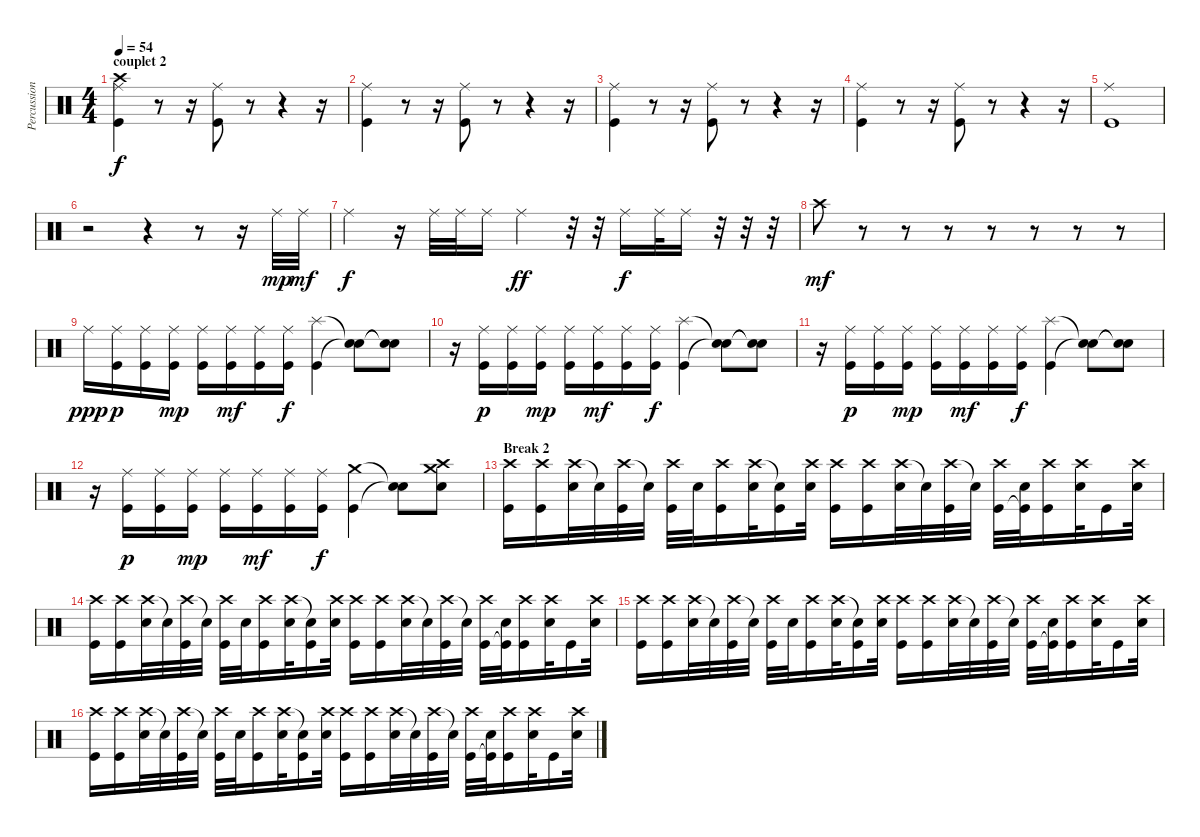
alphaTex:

\track ("Percussions" "Percussion") {instrument percussion}
\staff {score}
\articulation defaults
\ts (4 4)
\section ("" "couplet 2")
\tempo 54
\clef neutral
\ks c
("Ride (middle)" "Crash high (hit)" "Kick (hit)").4{dy f} r.8 r.16 ("Ride (middle)" "Kick (hit)").8 r.8 r.4 r.16 |
("Ride (middle)" "Kick (hit)").4 r.8 r.16 ("Ride (middle)" "Kick (hit)").8 r.8 r.4 r.16 |
("Ride (middle)" "Kick (hit)").4 r.8 r.16 ("Ride (middle)" "Kick (hit)").8 r.8 r.4 r.16 |
("Ride (middle)" "Kick (hit)").4 r.8 r.16 ("Ride (middle)" "Kick (hit)").8 r.8 r.4 r.16 |
("Ride (middle)" "Kick (hit)").1 |
r.2 r.4 r.8 r.16 "Ride (middle)".32{dy mp} "Ride (middle)".32{dy mf} |
"Ride (middle)".4{dy f} r.16 "Ride (middle)".32 "Ride (middle)".32 "Ride (middle)".16 "Ride (middle)".4{dy ff} r.32 r.32 "Ride (middle)".16{dy f} "Ride (middle)".32 "Ride (middle)".16 r.32 r.32 r.32 |
"Crash high (hit)".8{dy mf} r.8 r.8 r.8 r.8 r.8 r.8 r.8 |
"Ride (middle)".16{dy ppp} ("Ride (middle)" "Kick (hit)").16{dy p} ("Ride (middle)" "Kick (hit)").16 ("Ride (middle)" "Kick (hit)").16{dy mp} ("Ride (middle)" "Kick (hit)").16 ("Ride (middle)" "Kick (hit)").16{dy mf} ("Ride (middle)" "Kick (hit)").16 ("Ride (middle)" "Kick (hit)").16{dy f} ("Splash (hit)" "Kick (hit)").4 ("Snare (hit)"{t} "Snare (hit)"{t}).8 ("Snare (hit)"{t} "Snare (hit)"{t}).8 |
r.16 ("Ride (middle)" "Kick (hit)").16{dy p} ("Ride (middle)" "Kick (hit)").16 ("Ride (middle)" "Kick (hit)").16{dy mp} ("Ride (middle)" "Kick (hit)").16 ("Ride (middle)" "Kick (hit)").16{dy mf} ("Ride (middle)" "Kick (hit)").16 ("Ride (middle)" "Kick (hit)").16{dy f} ("Splash (hit)" "Kick (hit)").4 ("Snare (hit)"{t} "Snare (hit)"{t}).8 ("Snare (hit)"{t} "Snare (hit)"{t}).8 |
r.16 ("Ride (middle)" "Kick (hit)").16{dy p} ("Ride (middle)" "Kick (hit)").16 ("Ride (middle)" "Kick (hit)").16{dy mp} ("Ride (middle)" "Kick (hit)").16 ("Ride (middle)" "Kick (hit)").16{dy mf} ("Ride (middle)" "Kick (hit)").16 ("Ride (middle)" "Kick (hit)").16{dy f} ("Splash (hit)" "Kick (hit)").4 ("Snare (hit)"{t} "Snare (hit)"{t}).8 ("Snare (hit)"{t} "Snare (hit)"{t}).8 |
r.16 ("Ride (middle)" "Kick (hit)").16{dy p} ("Ride (middle)" "Kick (hit)").16 ("Ride (middle)" "Kick (hit)").16{dy mp} ("Ride (middle)" "Kick (hit)").16 ("Ride (middle)" "Kick (hit)").16{dy mf} ("Ride (middle)" "Kick (hit)").16 ("Ride (middle)" "Kick (hit)").16{dy f} ("Crash medium (hit)" "Kick (hit)").4 ("Snare (hit)"{t} "Snare (hit)"{t}).8 ("Crash high (hit)" "Crash medium (hit)" "Snare (hit)").8 |
\section ("" "Break 2")
("Crash high (hit)" "Kick (hit)").16 ("Crash high (hit)" "Kick (hit)").16 ("Crash high (hit)" "Electric Snare (hit)").32 "Snare (hit)"{t}.32 ("Crash high (hit)" "Kick (hit)").32 "Snare (hit)"{t}.32 ("Crash high (hit)" "Kick (hit)").32 "Electric Snare (hit)".32 ("Crash high (hit)" "Kick (hit)").16 ("Crash high (hit)" "Electric Snare (hit)").32 ("Snare (hit)"{t} "Kick (hit)").16 ("Crash high (hit)" "Electric Snare (hit)").32 ("Crash high (hit)" "Kick (hit)").16 ("Crash high (hit)" "Kick (hit)").16 ("Crash high (hit)" "Electric Snare (hit)").32 "Snare (hit)"{t}.32 ("Crash high (hit)" "Kick (hit)").32 "Snare (hit)"{t}.32 ("Crash high (hit)" "Kick (hit)").32 ("Electric Snare (hit)" "Kick (hit)"{t}).32 ("Crash high (hit)" "Kick (hit)").16 ("Crash high (hit)" "Electric Snare (hit)").32 "Kick (hit)".16 ("Crash high (hit)" "Electric Snare (hit)").32 |
("Crash high (hit)" "Kick (hit)").16 ("Crash high (hit)" "Kick (hit)").16 ("Crash high (hit)" "Electric Snare (hit)").32 "Snare (hit)"{t}.32 ("Crash high (hit)" "Kick (hit)").32 "Snare (hit)"{t}.32 ("Crash high (hit)" "Kick (hit)").32 "Electric Snare (hit)".32 ("Crash high (hit)" "Kick (hit)").16 ("Crash high (hit)" "Electric Snare (hit)").32 ("Snare (hit)"{t} "Kick (hit)").16 ("Crash high (hit)" "Electric Snare (hit)").32 ("Crash high (hit)" "Kick (hit)").16 ("Crash high (hit)" "Kick (hit)").16 ("Crash high (hit)" "Electric Snare (hit)").32 "Snare (hit)"{t}.32 ("Crash high (hit)" "Kick (hit)").32 "Snare (hit)"{t}.32 ("Crash high (hit)" "Kick (hit)").32 ("Electric Snare (hit)" "Kick (hit)"{t}).32 ("Crash high (hit)" "Kick (hit)").16 ("Crash high (hit)" "Electric Snare (hit)").32 "Kick (hit)".16 ("Crash high (hit)" "Electric Snare (hit)").32 |
("Crash high (hit)" "Kick (hit)").16 ("Crash high (hit)" "Kick (hit)").16 ("Crash high (hit)" "Electric Snare (hit)").32 "Snare (hit)"{t}.32 ("Crash high (hit)" "Kick (hit)").32 "Snare (hit)"{t}.32 ("Crash high (hit)" "Kick (hit)").32 "Electric Snare (hit)".32 ("Crash high (hit)" "Kick (hit)").16 ("Crash high (hit)" "Electric Snare (hit)").32 ("Snare (hit)"{t} "Kick (hit)").16 ("Crash high (hit)" "Electric Snare (hit)").32 ("Crash high (hit)" "Kick (hit)").16 ("Crash high (hit)" "Kick (hit)").16 ("Crash high (hit)" "Electric Snare (hit)").32 "Snare (hit)"{t}.32 ("Crash high (hit)" "Kick (hit)").32 "Snare (hit)"{t}.32 ("Crash high (hit)" "Kick (hit)").32 ("Electric Snare (hit)" "Kick (hit)"{t}).32 ("Crash high (hit)" "Kick (hit)").16 ("Crash high (hit)" "Electric Snare (hit)").32 "Kick (hit)".16 ("Crash high (hit)" "Electric Snare (hit)").32 |
("Crash high (hit)" "Kick (hit)").16 ("Crash high (hit)" "Kick (hit)").16 ("Crash high (hit)" "Electric Snare (hit)").32 "Snare (hit)"{t}.32 ("Crash high (hit)" "Kick (hit)").32 "Snare (hit)"{t}.32 ("Crash high (hit)" "Kick (hit)").32 "Electric Snare (hit)".32 ("Crash high (hit)" "Kick (hit)").16 ("Crash high (hit)" "Electric Snare (hit)").32 ("Snare (hit)"{t} "Kick (hit)").16 ("Crash high (hit)" "Electric Snare (hit)").32 ("Crash high (hit)" "Kick (hit)").16 ("Crash high (hit)" "Kick (hit)").16 ("Crash high (hit)" "Electric Snare (hit)").32 "Snare (hit)"{t}.32 ("Crash high (hit)" "Kick (hit)").32 "Snare (hit)"{t}.32 ("Crash high (hit)" "Kick (hit)").32 ("Electric Snare (hit)" "Kick (hit)"{t}).32 ("Crash high (hit)" "Kick (hit)").16 ("Crash high (hit)" "Electric Snare (hit)").32 "Kick (hit)".16 ("Crash high (hit)" "Electric Snare (hit)").32
